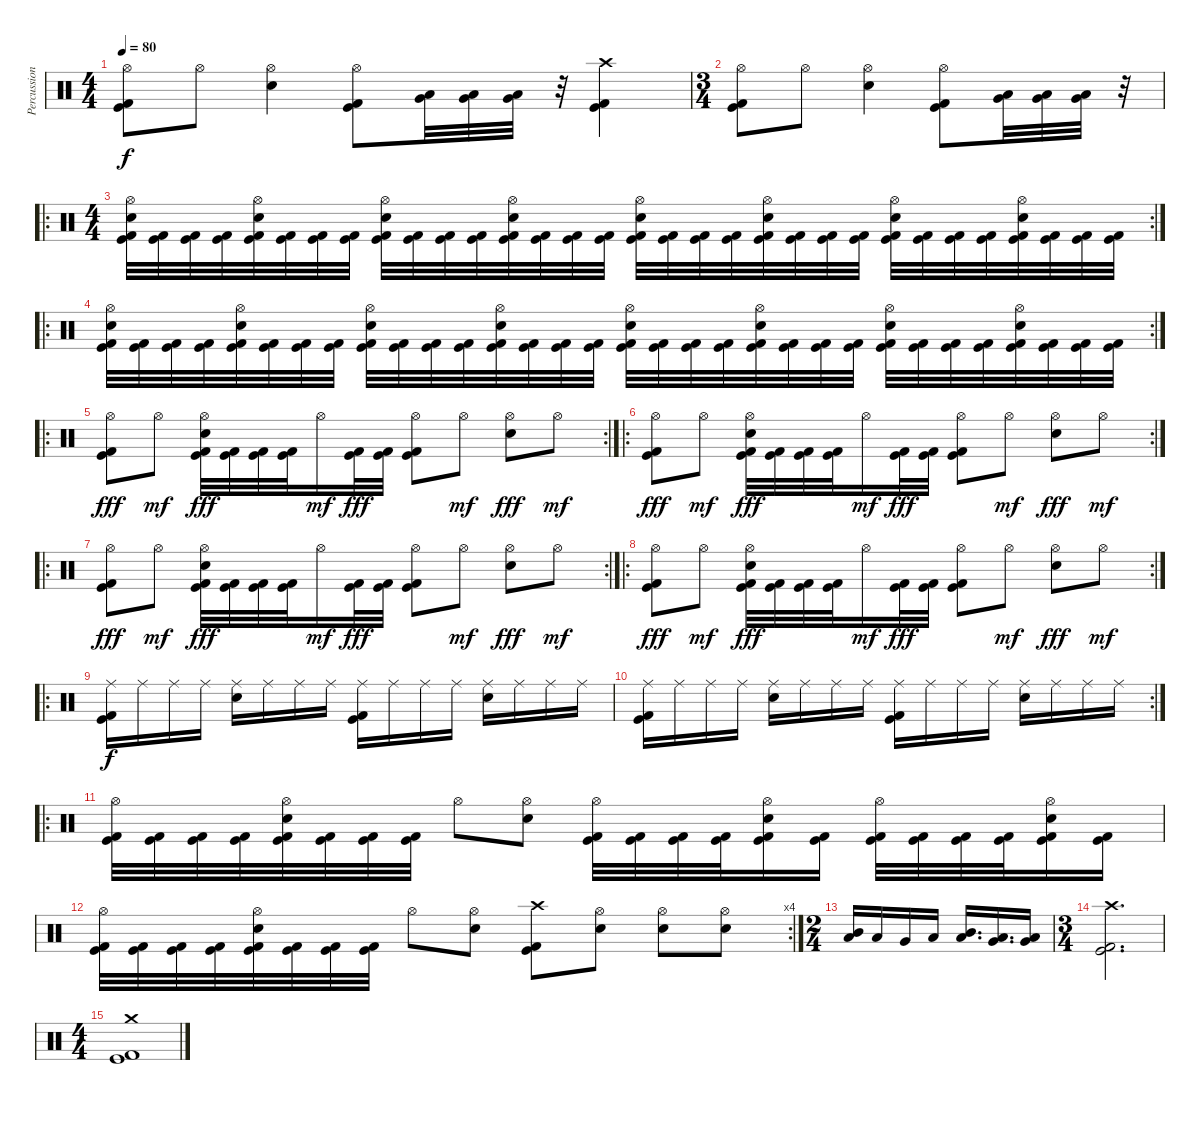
\track ("Percussion" "Percussion") {instrument percussion}
\staff {score}
\articulation defaults
\ts (4 4)
\tempo 80
\clef neutral
\ks c
("Hi-Hat (open)" "Kick (hit)" "Kick (hit) 2").8{dy f} "Hi-Hat (open)".8 ("Hi-Hat (open)" "Electric Snare (hit)").4 ("Hi-Hat (open)" "Kick (hit)" "Kick (hit) 2").8 ("Low Floor Tom (hit)" "Very Low Tom (hit)").32 ("Low Floor Tom (hit)" "Very Low Tom (hit)").32 ("Low Floor Tom (hit)" "Very Low Tom (hit)").32 r.32 ("Crash high (hit)" "Kick (hit)" "Kick (hit) 2").4 |
\ts (3 4)
("Hi-Hat (open)" "Kick (hit)" "Kick (hit) 2").8 "Hi-Hat (open)".8 ("Hi-Hat (open)" "Electric Snare (hit)").4 ("Hi-Hat (open)" "Kick (hit)" "Kick (hit) 2").8 ("Low Floor Tom (hit)" "Very Low Tom (hit)").32 ("Low Floor Tom (hit)" "Very Low Tom (hit)").32 ("Low Floor Tom (hit)" "Very Low Tom (hit)").32 r.32 |
\ro
\rc 2
\ts (4 4)
("Hi-Hat (open)" "Electric Snare (hit)" "Kick (hit)" "Kick (hit) 2").32 ("Kick (hit)" "Kick (hit) 2").32 ("Kick (hit)" "Kick (hit) 2").32 ("Kick (hit)" "Kick (hit) 2").32 ("Hi-Hat (open)" "Electric Snare (hit)" "Kick (hit)" "Kick (hit) 2").32 ("Kick (hit)" "Kick (hit) 2").32 ("Kick (hit)" "Kick (hit) 2").32 ("Kick (hit)" "Kick (hit) 2").32 ("Hi-Hat (open)" "Electric Snare (hit)" "Kick (hit)" "Kick (hit) 2").32 ("Kick (hit)" "Kick (hit) 2").32 ("Kick (hit)" "Kick (hit) 2").32 ("Kick (hit)" "Kick (hit) 2").32 ("Hi-Hat (open)" "Electric Snare (hit)" "Kick (hit)" "Kick (hit) 2").32 ("Kick (hit)" "Kick (hit) 2").32 ("Kick (hit)" "Kick (hit) 2").32 ("Kick (hit)" "Kick (hit) 2").32 ("Hi-Hat (open)" "Electric Snare (hit)" "Kick (hit)" "Kick (hit) 2").32 ("Kick (hit)" "Kick (hit) 2").32 ("Kick (hit)" "Kick (hit) 2").32 ("Kick (hit)" "Kick (hit) 2").32 ("Hi-Hat (open)" "Electric Snare (hit)" "Kick (hit)" "Kick (hit) 2").32 ("Kick (hit)" "Kick (hit) 2").32 ("Kick (hit)" "Kick (hit) 2").32 ("Kick (hit)" "Kick (hit) 2").32 ("Hi-Hat (open)" "Electric Snare (hit)" "Kick (hit)" "Kick (hit) 2").32 ("Kick (hit)" "Kick (hit) 2").32 ("Kick (hit)" "Kick (hit) 2").32 ("Kick (hit)" "Kick (hit) 2").32 ("Hi-Hat (open)" "Electric Snare (hit)" "Kick (hit)" "Kick (hit) 2").32 ("Kick (hit)" "Kick (hit) 2").32 ("Kick (hit)" "Kick (hit) 2").32 ("Kick (hit)" "Kick (hit) 2").32 |
\ro
\rc 2
("Hi-Hat (open)" "Electric Snare (hit)" "Kick (hit)" "Kick (hit) 2").32 ("Kick (hit)" "Kick (hit) 2").32 ("Kick (hit)" "Kick (hit) 2").32 ("Kick (hit)" "Kick (hit) 2").32 ("Hi-Hat (open)" "Electric Snare (hit)" "Kick (hit)" "Kick (hit) 2").32 ("Kick (hit)" "Kick (hit) 2").32 ("Kick (hit)" "Kick (hit) 2").32 ("Kick (hit)" "Kick (hit) 2").32 ("Hi-Hat (open)" "Electric Snare (hit)" "Kick (hit)" "Kick (hit) 2").32 ("Kick (hit)" "Kick (hit) 2").32 ("Kick (hit)" "Kick (hit) 2").32 ("Kick (hit)" "Kick (hit) 2").32 ("Hi-Hat (open)" "Electric Snare (hit)" "Kick (hit)" "Kick (hit) 2").32 ("Kick (hit)" "Kick (hit) 2").32 ("Kick (hit)" "Kick (hit) 2").32 ("Kick (hit)" "Kick (hit) 2").32 ("Hi-Hat (open)" "Electric Snare (hit)" "Kick (hit)" "Kick (hit) 2").32 ("Kick (hit)" "Kick (hit) 2").32 ("Kick (hit)" "Kick (hit) 2").32 ("Kick (hit)" "Kick (hit) 2").32 ("Hi-Hat (open)" "Electric Snare (hit)" "Kick (hit)" "Kick (hit) 2").32 ("Kick (hit)" "Kick (hit) 2").32 ("Kick (hit)" "Kick (hit) 2").32 ("Kick (hit)" "Kick (hit) 2").32 ("Hi-Hat (open)" "Electric Snare (hit)" "Kick (hit)" "Kick (hit) 2").32 ("Kick (hit)" "Kick (hit) 2").32 ("Kick (hit)" "Kick (hit) 2").32 ("Kick (hit)" "Kick (hit) 2").32 ("Hi-Hat (open)" "Electric Snare (hit)" "Kick (hit)" "Kick (hit) 2").32 ("Kick (hit)" "Kick (hit) 2").32 ("Kick (hit)" "Kick (hit) 2").32 ("Kick (hit)" "Kick (hit) 2").32 |
\ro
\rc 2
("Hi-Hat (open)" "Kick (hit) 2" "Kick (hit)").8{dy fff} "Hi-Hat (open)".8{dy mf} ("Electric Snare (hit)" "Hi-Hat (open)" "Kick (hit) 2" "Kick (hit)").32{dy fff} ("Kick (hit) 2" "Kick (hit)").32 ("Kick (hit) 2" "Kick (hit)").32 ("Kick (hit) 2" "Kick (hit)").32 "Hi-Hat (open)".16{dy mf} ("Kick (hit) 2" "Kick (hit)").32{dy fff} ("Kick (hit) 2" "Kick (hit)").32 ("Hi-Hat (open)" "Kick (hit) 2" "Kick (hit)").8 "Hi-Hat (open)".8{dy mf} ("Hi-Hat (open)" "Electric Snare (hit)").8{dy fff} "Hi-Hat (open)".8{dy mf} |
\ro
\rc 2
("Hi-Hat (open)" "Kick (hit) 2" "Kick (hit)").8{dy fff} "Hi-Hat (open)".8{dy mf} ("Electric Snare (hit)" "Hi-Hat (open)" "Kick (hit) 2" "Kick (hit)").32{dy fff} ("Kick (hit) 2" "Kick (hit)").32 ("Kick (hit) 2" "Kick (hit)").32 ("Kick (hit) 2" "Kick (hit)").32 "Hi-Hat (open)".16{dy mf} ("Kick (hit) 2" "Kick (hit)").32{dy fff} ("Kick (hit) 2" "Kick (hit)").32 ("Hi-Hat (open)" "Kick (hit) 2" "Kick (hit)").8 "Hi-Hat (open)".8{dy mf} ("Hi-Hat (open)" "Electric Snare (hit)").8{dy fff} "Hi-Hat (open)".8{dy mf} |
\ro
\rc 2
("Hi-Hat (open)" "Kick (hit) 2" "Kick (hit)").8{dy fff} "Hi-Hat (open)".8{dy mf} ("Electric Snare (hit)" "Hi-Hat (open)" "Kick (hit) 2" "Kick (hit)").32{dy fff} ("Kick (hit) 2" "Kick (hit)").32 ("Kick (hit) 2" "Kick (hit)").32 ("Kick (hit) 2" "Kick (hit)").32 "Hi-Hat (open)".16{dy mf} ("Kick (hit) 2" "Kick (hit)").32{dy fff} ("Kick (hit) 2" "Kick (hit)").32 ("Hi-Hat (open)" "Kick (hit) 2" "Kick (hit)").8 "Hi-Hat (open)".8{dy mf} ("Hi-Hat (open)" "Electric Snare (hit)").8{dy fff} "Hi-Hat (open)".8{dy mf} |
\ro
\rc 2
("Hi-Hat (open)" "Kick (hit) 2" "Kick (hit)").8{dy fff} "Hi-Hat (open)".8{dy mf} ("Electric Snare (hit)" "Hi-Hat (open)" "Kick (hit) 2" "Kick (hit)").32{dy fff} ("Kick (hit) 2" "Kick (hit)").32 ("Kick (hit) 2" "Kick (hit)").32 ("Kick (hit) 2" "Kick (hit)").32 "Hi-Hat (open)".16{dy mf} ("Kick (hit) 2" "Kick (hit)").32{dy fff} ("Kick (hit) 2" "Kick (hit)").32 ("Hi-Hat (open)" "Kick (hit) 2" "Kick (hit)").8 "Hi-Hat (open)".8{dy mf} ("Hi-Hat (open)" "Electric Snare (hit)").8{dy fff} "Hi-Hat (open)".8{dy mf} |
\ro
("Ride (middle)" "Kick (hit)" "Kick (hit) 2").16{dy f} "Ride (middle)".16 "Ride (middle)".16 "Ride (middle)".16 ("Ride (middle)" "Electric Snare (hit)").16 "Ride (middle)".16 "Ride (middle)".16 "Ride (middle)".16 ("Ride (middle)" "Kick (hit)" "Kick (hit) 2").16 "Ride (middle)".16 "Ride (middle)".16 "Ride (middle)".16 ("Ride (middle)" "Electric Snare (hit)").16 "Ride (middle)".16 "Ride (middle)".16 "Ride (middle)".16 |
\rc 2
("Ride (middle)" "Kick (hit)" "Kick (hit) 2").16 "Ride (middle)".16 "Ride (middle)".16 "Ride (middle)".16 ("Ride (middle)" "Electric Snare (hit)").16 "Ride (middle)".16 "Ride (middle)".16 "Ride (middle)".16 ("Ride (middle)" "Kick (hit)" "Kick (hit) 2").16 "Ride (middle)".16 "Ride (middle)".16 "Ride (middle)".16 ("Ride (middle)" "Electric Snare (hit)").16 "Ride (middle)".16 "Ride (middle)".16 "Ride (middle)".16 |
\ro
("Hi-Hat (open)" "Kick (hit)" "Kick (hit) 2").32 ("Kick (hit)" "Kick (hit) 2").32 ("Kick (hit)" "Kick (hit) 2").32 ("Kick (hit)" "Kick (hit) 2").32 ("Electric Snare (hit)" "Hi-Hat (open)" "Kick (hit)" "Kick (hit) 2").32 ("Kick (hit)" "Kick (hit) 2").32 ("Kick (hit)" "Kick (hit) 2").32 ("Kick (hit)" "Kick (hit) 2").32 "Hi-Hat (open)".8 ("Hi-Hat (open)" "Electric Snare (hit)").8 ("Hi-Hat (open)" "Kick (hit)" "Kick (hit) 2").32 ("Kick (hit)" "Kick (hit) 2").32 ("Kick (hit)" "Kick (hit) 2").32 ("Kick (hit)" "Kick (hit) 2").32 ("Hi-Hat (open)" "Electric Snare (hit)" "Kick (hit)" "Kick (hit) 2").16 ("Kick (hit)" "Kick (hit) 2").16 ("Hi-Hat (open)" "Kick (hit)" "Kick (hit) 2").32 ("Kick (hit)" "Kick (hit) 2").32 ("Kick (hit)" "Kick (hit) 2").32 ("Kick (hit)" "Kick (hit) 2").32 ("Electric Snare (hit)" "Hi-Hat (open)" "Kick (hit)" "Kick (hit) 2").16 ("Kick (hit)" "Kick (hit) 2").16 |
\rc 4
("Hi-Hat (open)" "Kick (hit)" "Kick (hit) 2").32 ("Kick (hit)" "Kick (hit) 2").32 ("Kick (hit)" "Kick (hit) 2").32 ("Kick (hit)" "Kick (hit) 2").32 ("Electric Snare (hit)" "Hi-Hat (open)" "Kick (hit)" "Kick (hit) 2").32 ("Kick (hit)" "Kick (hit) 2").32 ("Kick (hit)" "Kick (hit) 2").32 ("Kick (hit)" "Kick (hit) 2").32 "Hi-Hat (open)".8 ("Electric Snare (hit)" "Hi-Hat (open)").8 ("Crash high (hit)" "Kick (hit)" "Kick (hit) 2").8 ("Electric Snare (hit)" "Hi-Hat (open)").8 ("Hi-Hat (open)" "Electric Snare (hit)").8 ("Electric Snare (hit)" "Hi-Hat (open)").8 |
\ts (2 4)
("Mid Tom (hit)" "Low Tom (hit)").16 "Low Tom (hit)".16 "Very Low Tom (hit)".16 "Low Floor Tom (hit)".16 ("Mid Tom (hit)" "Low Tom (hit)").16{d} ("Low Tom (hit)" "Very Low Tom (hit)").16{d} ("Low Floor Tom (hit)" "Very Low Tom (hit)").16 |
\ts (3 4)
("Crash high (hit)" "Kick (hit)" "Kick (hit) 2").2{d} |
\ts (4 4)
("Crash medium (hit)" "Kick (hit) 2" "Kick (hit)").1
